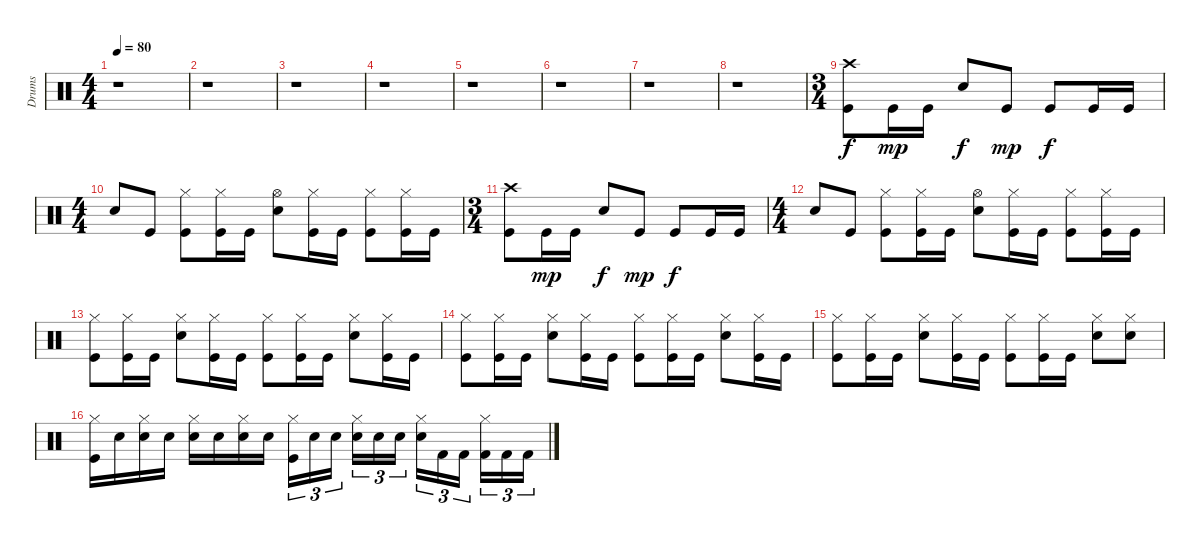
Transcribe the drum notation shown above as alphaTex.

\track ("Drums" "Drums") {instrument percussion}
\staff {score}
\articulation defaults
\ts (4 4)
\tempo 80
\clef neutral
\ks c
r.1{dy p} |
r.1 |
r.1 |
r.1 |
r.1 |
r.1 |
r.1 |
r.1 |
\ts (3 4)
("Crash high (hit)" "Kick (hit)").8{dy f} "Kick (hit)".16{dy mp} "Kick (hit)".16 "Snare (hit) 2".8{dy f} "Kick (hit)".8{dy mp} "Kick (hit)".8{dy f} "Kick (hit)".16 "Kick (hit)".16 |
\ts (4 4)
"Snare (hit) 2".8 "Kick (hit)".8 ("Hi-Hat (closed)" "Kick (hit)").8 ("Hi-Hat (closed)" "Kick (hit)").16 "Kick (hit)".16 ("Hi-Hat (open)" "Snare (hit) 2").8 ("Hi-Hat (closed)" "Kick (hit)").16 "Kick (hit)".16 ("Hi-Hat (closed)" "Kick (hit)").8 ("Hi-Hat (closed)" "Kick (hit)").16 "Kick (hit)".16 |
\ts (3 4)
("Crash high (hit)" "Kick (hit)").8 "Kick (hit)".16{dy mp} "Kick (hit)".16 "Snare (hit) 2".8{dy f} "Kick (hit)".8{dy mp} "Kick (hit)".8{dy f} "Kick (hit)".16 "Kick (hit)".16 |
\ts (4 4)
"Snare (hit) 2".8 "Kick (hit)".8 ("Hi-Hat (closed)" "Kick (hit)").8 ("Hi-Hat (closed)" "Kick (hit)").16 "Kick (hit)".16 ("Hi-Hat (open)" "Snare (hit) 2").8 ("Hi-Hat (closed)" "Kick (hit)").16 "Kick (hit)".16 ("Hi-Hat (closed)" "Kick (hit)").8 ("Hi-Hat (closed)" "Kick (hit)").16 "Kick (hit)".16 |
("Hi-Hat (closed)" "Kick (hit)").8 ("Hi-Hat (closed)" "Kick (hit)").16 "Kick (hit)".16 ("Hi-Hat (closed)" "Snare (hit) 2").8 ("Hi-Hat (closed)" "Kick (hit)").16 "Kick (hit)".16 ("Hi-Hat (closed)" "Kick (hit)").8 ("Hi-Hat (closed)" "Kick (hit)").16 "Kick (hit)".16 ("Hi-Hat (closed)" "Snare (hit) 2").8 ("Hi-Hat (closed)" "Kick (hit)").16 "Kick (hit)".16 |
("Hi-Hat (closed)" "Kick (hit)").8 ("Hi-Hat (closed)" "Kick (hit)").16 "Kick (hit)".16 ("Hi-Hat (closed)" "Snare (hit) 2").8 ("Hi-Hat (closed)" "Kick (hit)").16 "Kick (hit)".16 ("Hi-Hat (closed)" "Kick (hit)").8 ("Hi-Hat (closed)" "Kick (hit)").16 "Kick (hit)".16 ("Hi-Hat (closed)" "Snare (hit) 2").8 ("Hi-Hat (closed)" "Kick (hit)").16 "Kick (hit)".16 |
("Hi-Hat (closed)" "Kick (hit)").8 ("Hi-Hat (closed)" "Kick (hit)").16 "Kick (hit)".16 ("Hi-Hat (closed)" "Snare (hit) 2").8 ("Hi-Hat (closed)" "Kick (hit)").16 "Kick (hit)".16 ("Hi-Hat (closed)" "Kick (hit)").8 ("Hi-Hat (closed)" "Kick (hit)").16 "Kick (hit)".16 ("Hi-Hat (closed)" "Snare (hit) 2").8 ("Snare (hit) 2" "Hi-Hat (closed)").8 |
("Hi-Hat (closed)" "Kick (hit)").16 "Snare (hit) 2".16 ("Hi-Hat (closed)" "Snare (hit) 2").16 "Snare (hit) 2".16 ("Hi-Hat (closed)" "Snare (hit) 2").16 "Snare (hit) 2".16 ("Hi-Hat (closed)" "Snare (hit) 2").16 "Snare (hit) 2".16 ("Hi-Hat (closed)" "Kick (hit)").16{tu (3 2)} "Snare (hit) 2".16{tu (3 2)} "Snare (hit) 2".16{tu (3 2)} ("Hi-Hat (closed)" "Snare (hit) 2").16{tu (3 2)} "Snare (hit) 2".16{tu (3 2)} "Snare (hit) 2".16{tu (3 2)} ("Hi-Hat (closed)" "Snare (hit) 2").16{tu (3 2)} "Kick (hit) 2".16{tu (3 2)} "Kick (hit) 2".16{tu (3 2)} ("Hi-Hat (closed)" "Kick (hit) 2").16{tu (3 2)} "Kick (hit) 2".16{tu (3 2)} "Kick (hit) 2".16{tu (3 2)}
